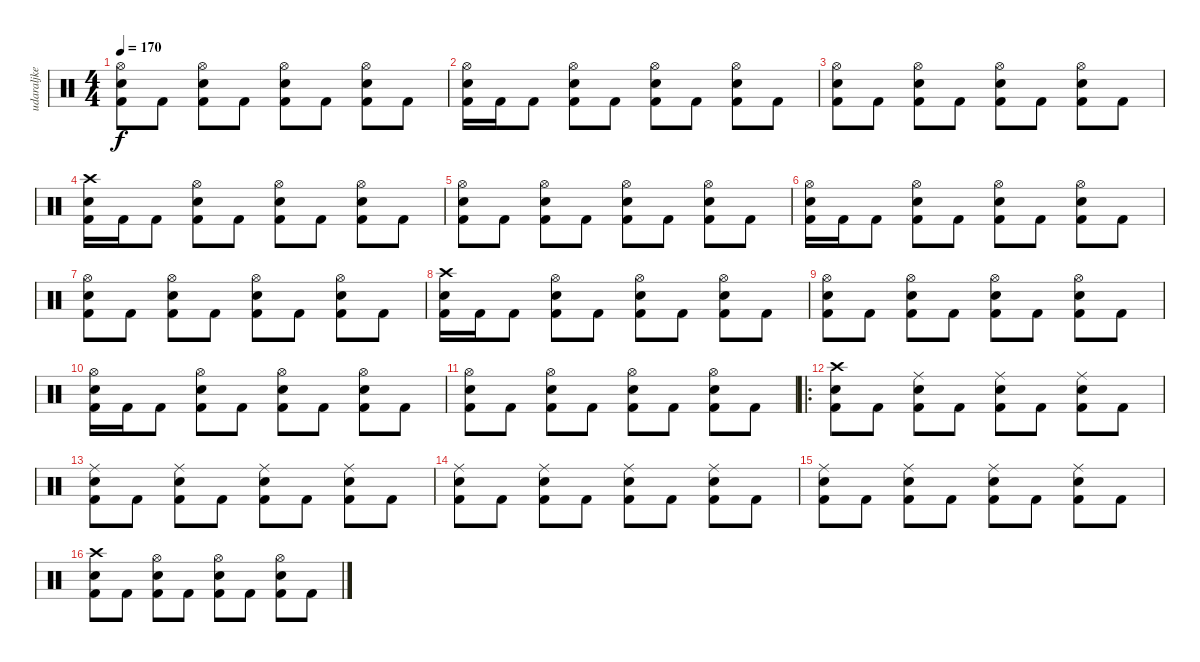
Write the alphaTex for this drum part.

\track ("udaraljke" "udaraljke") {instrument percussion}
\staff {score}
\articulation defaults
\ts (4 4)
\tempo 170
\clef neutral
\ks c
("Hi-Hat (open)" "Snare (hit) 2" "Kick (hit) 2").8{dy f} "Kick (hit) 2".8 ("Hi-Hat (open)" "Snare (hit) 2" "Kick (hit) 2").8 "Kick (hit) 2".8 ("Hi-Hat (open)" "Snare (hit) 2" "Kick (hit) 2").8 "Kick (hit) 2".8 ("Hi-Hat (open)" "Snare (hit) 2" "Kick (hit) 2").8 "Kick (hit) 2".8 |
("Hi-Hat (open)" "Snare (hit) 2" "Kick (hit) 2").16 "Kick (hit) 2".16 "Kick (hit) 2".8 ("Hi-Hat (open)" "Snare (hit) 2" "Kick (hit) 2").8 "Kick (hit) 2".8 ("Hi-Hat (open)" "Snare (hit) 2" "Kick (hit) 2").8 "Kick (hit) 2".8 ("Hi-Hat (open)" "Snare (hit) 2" "Kick (hit) 2").8 "Kick (hit) 2".8 |
("Hi-Hat (open)" "Snare (hit) 2" "Kick (hit) 2").8 "Kick (hit) 2".8 ("Hi-Hat (open)" "Snare (hit) 2" "Kick (hit) 2").8 "Kick (hit) 2".8 ("Hi-Hat (open)" "Snare (hit) 2" "Kick (hit) 2").8 "Kick (hit) 2".8 ("Hi-Hat (open)" "Snare (hit) 2" "Kick (hit) 2").8 "Kick (hit) 2".8 |
("Crash high (hit)" "Snare (hit) 2" "Kick (hit) 2").16 "Kick (hit) 2".16 "Kick (hit) 2".8 ("Hi-Hat (open)" "Snare (hit) 2" "Kick (hit) 2").8 "Kick (hit) 2".8 ("Hi-Hat (open)" "Snare (hit) 2" "Kick (hit) 2").8 "Kick (hit) 2".8 ("Hi-Hat (open)" "Snare (hit) 2" "Kick (hit) 2").8 "Kick (hit) 2".8 |
("Hi-Hat (open)" "Snare (hit) 2" "Kick (hit) 2").8 "Kick (hit) 2".8 ("Hi-Hat (open)" "Snare (hit) 2" "Kick (hit) 2").8 "Kick (hit) 2".8 ("Hi-Hat (open)" "Snare (hit) 2" "Kick (hit) 2").8 "Kick (hit) 2".8 ("Hi-Hat (open)" "Snare (hit) 2" "Kick (hit) 2").8 "Kick (hit) 2".8 |
("Hi-Hat (open)" "Snare (hit) 2" "Kick (hit) 2").16 "Kick (hit) 2".16 "Kick (hit) 2".8 ("Hi-Hat (open)" "Snare (hit) 2" "Kick (hit) 2").8 "Kick (hit) 2".8 ("Hi-Hat (open)" "Snare (hit) 2" "Kick (hit) 2").8 "Kick (hit) 2".8 ("Hi-Hat (open)" "Snare (hit) 2" "Kick (hit) 2").8 "Kick (hit) 2".8 |
("Hi-Hat (open)" "Snare (hit) 2" "Kick (hit) 2").8 "Kick (hit) 2".8 ("Hi-Hat (open)" "Snare (hit) 2" "Kick (hit) 2").8 "Kick (hit) 2".8 ("Hi-Hat (open)" "Snare (hit) 2" "Kick (hit) 2").8 "Kick (hit) 2".8 ("Hi-Hat (open)" "Snare (hit) 2" "Kick (hit) 2").8 "Kick (hit) 2".8 |
("Crash high (hit)" "Snare (hit) 2" "Kick (hit) 2").16 "Kick (hit) 2".16 "Kick (hit) 2".8 ("Hi-Hat (open)" "Snare (hit) 2" "Kick (hit) 2").8 "Kick (hit) 2".8 ("Hi-Hat (open)" "Snare (hit) 2" "Kick (hit) 2").8 "Kick (hit) 2".8 ("Hi-Hat (open)" "Snare (hit) 2" "Kick (hit) 2").8 "Kick (hit) 2".8 |
("Hi-Hat (open)" "Snare (hit) 2" "Kick (hit) 2").8 "Kick (hit) 2".8 ("Hi-Hat (open)" "Snare (hit) 2" "Kick (hit) 2").8 "Kick (hit) 2".8 ("Hi-Hat (open)" "Snare (hit) 2" "Kick (hit) 2").8 "Kick (hit) 2".8 ("Hi-Hat (open)" "Snare (hit) 2" "Kick (hit) 2").8 "Kick (hit) 2".8 |
("Hi-Hat (open)" "Snare (hit) 2" "Kick (hit) 2").16 "Kick (hit) 2".16 "Kick (hit) 2".8 ("Hi-Hat (open)" "Snare (hit) 2" "Kick (hit) 2").8 "Kick (hit) 2".8 ("Hi-Hat (open)" "Snare (hit) 2" "Kick (hit) 2").8 "Kick (hit) 2".8 ("Hi-Hat (open)" "Snare (hit) 2" "Kick (hit) 2").8 "Kick (hit) 2".8 |
("Hi-Hat (open)" "Snare (hit) 2" "Kick (hit) 2").8 "Kick (hit) 2".8 ("Hi-Hat (open)" "Snare (hit) 2" "Kick (hit) 2").8 "Kick (hit) 2".8 ("Hi-Hat (open)" "Snare (hit) 2" "Kick (hit) 2").8 "Kick (hit) 2".8 ("Hi-Hat (open)" "Snare (hit) 2" "Kick (hit) 2").8 "Kick (hit) 2".8 |
\ro
("Crash high (hit)" "Snare (hit) 2" "Kick (hit) 2").8 "Kick (hit) 2".8 ("Ride (middle)" "Snare (hit) 2" "Kick (hit) 2").8 "Kick (hit) 2".8 ("Ride (middle)" "Snare (hit) 2" "Kick (hit) 2").8 "Kick (hit) 2".8 ("Ride (middle)" "Snare (hit) 2" "Kick (hit) 2").8 "Kick (hit) 2".8 |
("Ride (middle)" "Snare (hit) 2" "Kick (hit) 2").8 "Kick (hit) 2".8 ("Ride (middle)" "Snare (hit) 2" "Kick (hit) 2").8 "Kick (hit) 2".8 ("Ride (middle)" "Snare (hit) 2" "Kick (hit) 2").8 "Kick (hit) 2".8 ("Ride (middle)" "Snare (hit) 2" "Kick (hit) 2").8 "Kick (hit) 2".8 |
("Ride (middle)" "Snare (hit) 2" "Kick (hit) 2").8 "Kick (hit) 2".8 ("Ride (middle)" "Snare (hit) 2" "Kick (hit) 2").8 "Kick (hit) 2".8 ("Ride (middle)" "Snare (hit) 2" "Kick (hit) 2").8 "Kick (hit) 2".8 ("Ride (middle)" "Snare (hit) 2" "Kick (hit) 2").8 "Kick (hit) 2".8 |
("Ride (middle)" "Snare (hit) 2" "Kick (hit) 2").8 "Kick (hit) 2".8 ("Ride (middle)" "Snare (hit) 2" "Kick (hit) 2").8 "Kick (hit) 2".8 ("Ride (middle)" "Snare (hit) 2" "Kick (hit) 2").8 "Kick (hit) 2".8 ("Ride (middle)" "Snare (hit) 2" "Kick (hit) 2").8 "Kick (hit) 2".8 |
("Crash high (hit)" "Snare (hit) 2" "Kick (hit) 2").8 "Kick (hit) 2".8 ("Hi-Hat (open)" "Snare (hit) 2" "Kick (hit) 2").8 "Kick (hit) 2".8 ("Hi-Hat (open)" "Snare (hit) 2" "Kick (hit) 2").8 "Kick (hit) 2".8 ("Hi-Hat (open)" "Snare (hit) 2" "Kick (hit) 2").8 "Kick (hit) 2".8
